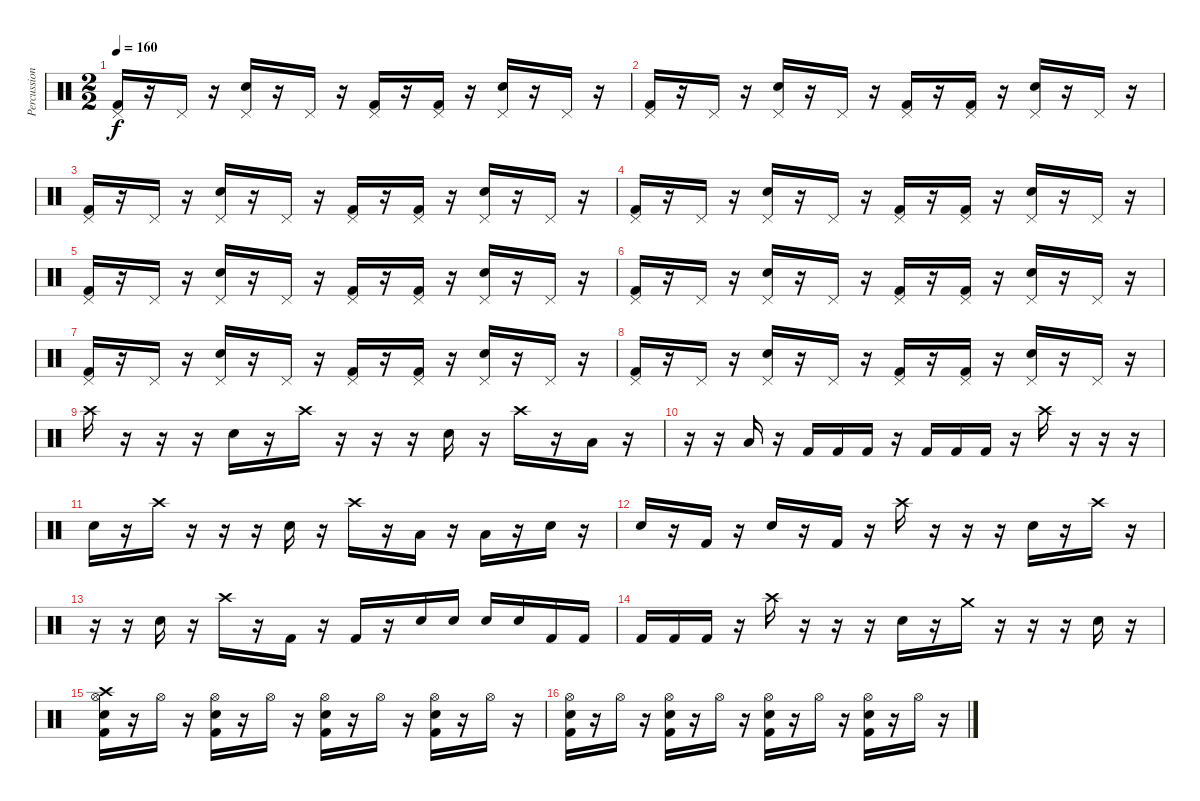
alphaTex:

\track ("Percussion" "Percussion") {instrument percussion}
\staff {score}
\articulation defaults
\ts (2 2)
\tempo 160
\clef neutral
\ks c
("Pedal Hi-Hat (hit)" "Kick (hit) 2").16{dy f} r.16 "Pedal Hi-Hat (hit)".16 r.16 ("Pedal Hi-Hat (hit)" "Snare (hit) 2").16 r.16 "Pedal Hi-Hat (hit)".16 r.16 ("Pedal Hi-Hat (hit)" "Kick (hit) 2").16 r.16 ("Pedal Hi-Hat (hit)" "Kick (hit) 2").16 r.16 ("Pedal Hi-Hat (hit)" "Snare (hit) 2").16 r.16 "Pedal Hi-Hat (hit)".16 r.16 |
("Pedal Hi-Hat (hit)" "Kick (hit) 2").16 r.16 "Pedal Hi-Hat (hit)".16 r.16 ("Pedal Hi-Hat (hit)" "Snare (hit) 2").16 r.16 "Pedal Hi-Hat (hit)".16 r.16 ("Pedal Hi-Hat (hit)" "Kick (hit) 2").16 r.16 ("Pedal Hi-Hat (hit)" "Kick (hit) 2").16 r.16 ("Pedal Hi-Hat (hit)" "Snare (hit) 2").16 r.16 "Pedal Hi-Hat (hit)".16 r.16 |
("Pedal Hi-Hat (hit)" "Kick (hit) 2").16 r.16 "Pedal Hi-Hat (hit)".16 r.16 ("Pedal Hi-Hat (hit)" "Snare (hit) 2").16 r.16 "Pedal Hi-Hat (hit)".16 r.16 ("Pedal Hi-Hat (hit)" "Kick (hit) 2").16 r.16 ("Pedal Hi-Hat (hit)" "Kick (hit) 2").16 r.16 ("Pedal Hi-Hat (hit)" "Snare (hit) 2").16 r.16 "Pedal Hi-Hat (hit)".16 r.16 |
("Pedal Hi-Hat (hit)" "Kick (hit) 2").16 r.16 "Pedal Hi-Hat (hit)".16 r.16 ("Pedal Hi-Hat (hit)" "Snare (hit) 2").16 r.16 "Pedal Hi-Hat (hit)".16 r.16 ("Pedal Hi-Hat (hit)" "Kick (hit) 2").16 r.16 ("Pedal Hi-Hat (hit)" "Kick (hit) 2").16 r.16 ("Pedal Hi-Hat (hit)" "Snare (hit) 2").16 r.16 "Pedal Hi-Hat (hit)".16 r.16 |
("Pedal Hi-Hat (hit)" "Kick (hit) 2").16 r.16 "Pedal Hi-Hat (hit)".16 r.16 ("Pedal Hi-Hat (hit)" "Snare (hit) 2").16 r.16 "Pedal Hi-Hat (hit)".16 r.16 ("Pedal Hi-Hat (hit)" "Kick (hit) 2").16 r.16 ("Pedal Hi-Hat (hit)" "Kick (hit) 2").16 r.16 ("Pedal Hi-Hat (hit)" "Snare (hit) 2").16 r.16 "Pedal Hi-Hat (hit)".16 r.16 |
("Pedal Hi-Hat (hit)" "Kick (hit) 2").16 r.16 "Pedal Hi-Hat (hit)".16 r.16 ("Pedal Hi-Hat (hit)" "Snare (hit) 2").16 r.16 "Pedal Hi-Hat (hit)".16 r.16 ("Pedal Hi-Hat (hit)" "Kick (hit) 2").16 r.16 ("Pedal Hi-Hat (hit)" "Kick (hit) 2").16 r.16 ("Pedal Hi-Hat (hit)" "Snare (hit) 2").16 r.16 "Pedal Hi-Hat (hit)".16 r.16 |
("Pedal Hi-Hat (hit)" "Kick (hit) 2").16 r.16 "Pedal Hi-Hat (hit)".16 r.16 ("Pedal Hi-Hat (hit)" "Snare (hit) 2").16 r.16 "Pedal Hi-Hat (hit)".16 r.16 ("Pedal Hi-Hat (hit)" "Kick (hit) 2").16 r.16 ("Pedal Hi-Hat (hit)" "Kick (hit) 2").16 r.16 ("Pedal Hi-Hat (hit)" "Snare (hit) 2").16 r.16 "Pedal Hi-Hat (hit)".16 r.16 |
("Pedal Hi-Hat (hit)" "Kick (hit) 2").16 r.16 "Pedal Hi-Hat (hit)".16 r.16 ("Pedal Hi-Hat (hit)" "Snare (hit) 2").16 r.16 "Pedal Hi-Hat (hit)".16 r.16 ("Pedal Hi-Hat (hit)" "Kick (hit) 2").16 r.16 ("Pedal Hi-Hat (hit)" "Kick (hit) 2").16 r.16 ("Pedal Hi-Hat (hit)" "Snare (hit) 2").16 r.16 "Pedal Hi-Hat (hit)".16 r.16 |
"Crash high (hit)".16 r.16 r.16 r.16 "Snare (hit) 2".16 r.16 "Crash high (hit)".16 r.16 r.16 r.16 "Snare (hit) 2".16 r.16 "Crash high (hit)".16 r.16 "Low Floor Tom (hit)".16 r.16 |
r.16 r.16 "Low Floor Tom (hit)".16 r.16 "Kick (hit) 2".16 "Kick (hit) 2".16 "Kick (hit) 2".16 r.16 "Kick (hit) 2".16 "Kick (hit) 2".16 "Kick (hit) 2".16 r.16 "Crash high (hit)".16 r.16 r.16 r.16 |
"Snare (hit) 2".16 r.16 "Crash high (hit)".16 r.16 r.16 r.16 "Snare (hit) 2".16 r.16 "Crash high (hit)".16 r.16 "Low Floor Tom (hit)".16 r.16 "Low Floor Tom (hit)".16 r.16 "Snare (hit) 2".16 r.16 |
"Snare (hit) 2".16 r.16 "Kick (hit) 2".16 r.16 "Snare (hit) 2".16 r.16 "Kick (hit) 2".16 r.16 "Crash high (hit)".16 r.16 r.16 r.16 "Snare (hit) 2".16 r.16 "Crash high (hit)".16 r.16 |
r.16 r.16 "Snare (hit) 2".16 r.16 "Crash high (hit)".16 r.16 "Kick (hit) 2".16 r.16 "Kick (hit) 2".16 r.16 "Snare (hit) 2".16 "Snare (hit) 2".16 "Snare (hit) 2".16 "Snare (hit) 2".16 "Kick (hit) 2".16 "Kick (hit) 2".16 |
"Kick (hit) 2".16 "Kick (hit) 2".16 "Kick (hit) 2".16 r.16 "Crash high (hit)".16 r.16 r.16 r.16 "Snare (hit) 2".16 r.16 "Crash medium (hit)".16 r.16 r.16 r.16 "Snare (hit) 2".16 r.16 |
("Crash high (hit)" "Hi-Hat (open)" "Kick (hit) 2" "Snare (hit) 2").16 r.16 "Hi-Hat (open)".16 r.16 ("Hi-Hat (open)" "Kick (hit) 2" "Snare (hit) 2").16 r.16 "Hi-Hat (open)".16 r.16 ("Hi-Hat (open)" "Kick (hit) 2" "Snare (hit) 2").16 r.16 "Hi-Hat (open)".16 r.16 ("Hi-Hat (open)" "Kick (hit) 2" "Snare (hit) 2").16 r.16 "Hi-Hat (open)".16 r.16 |
("Hi-Hat (open)" "Kick (hit) 2" "Snare (hit) 2").16 r.16 "Hi-Hat (open)".16 r.16 ("Hi-Hat (open)" "Kick (hit) 2" "Snare (hit) 2").16 r.16 "Hi-Hat (open)".16 r.16 ("Hi-Hat (open)" "Kick (hit) 2" "Snare (hit) 2").16 r.16 "Hi-Hat (open)".16 r.16 ("Hi-Hat (open)" "Kick (hit) 2" "Snare (hit) 2").16 r.16 "Hi-Hat (open)".16 r.16
